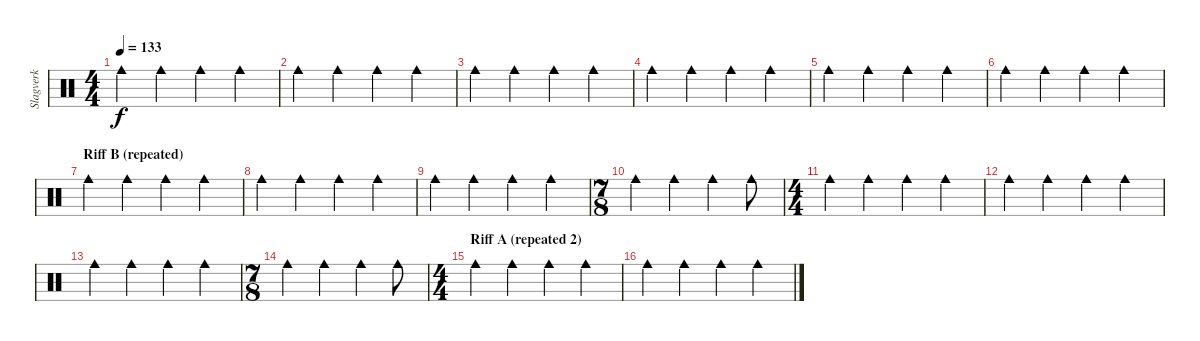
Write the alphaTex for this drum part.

\track ("Slagverk" "Slagverk") {instrument percussion}
\staff {score}
\articulation defaults
\ts (4 4)
\tempo 133
\clef neutral
\ks c "Cowbell medium (hit)".4{dy f} "Cowbell medium (hit)".4 "Cowbell medium (hit)".4 "Cowbell medium (hit)".4
|
"Cowbell medium (hit)".4 "Cowbell medium (hit)".4 "Cowbell medium (hit)".4 "Cowbell medium (hit)".4 |
"Cowbell medium (hit)".4 "Cowbell medium (hit)".4 "Cowbell medium (hit)".4 "Cowbell medium (hit)".4 |
"Cowbell medium (hit)".4 "Cowbell medium (hit)".4 "Cowbell medium (hit)".4 "Cowbell medium (hit)".4 |
"Cowbell medium (hit)".4 "Cowbell medium (hit)".4 "Cowbell medium (hit)".4 "Cowbell medium (hit)".4 |
"Cowbell medium (hit)".4 "Cowbell medium (hit)".4 "Cowbell medium (hit)".4 "Cowbell medium (hit)".4 |
\section ("" "Riff B (repeated)")
"Cowbell medium (hit)".4 "Cowbell medium (hit)".4 "Cowbell medium (hit)".4 "Cowbell medium (hit)".4 |
"Cowbell medium (hit)".4 "Cowbell medium (hit)".4 "Cowbell medium (hit)".4 "Cowbell medium (hit)".4 |
"Cowbell medium (hit)".4 "Cowbell medium (hit)".4 "Cowbell medium (hit)".4 "Cowbell medium (hit)".4 |
\ts (7 8)
"Cowbell medium (hit)".4 "Cowbell medium (hit)".4 "Cowbell medium (hit)".4 "Cowbell medium (hit)".8 |
\ts (4 4)
"Cowbell medium (hit)".4 "Cowbell medium (hit)".4 "Cowbell medium (hit)".4 "Cowbell medium (hit)".4 |
"Cowbell medium (hit)".4 "Cowbell medium (hit)".4 "Cowbell medium (hit)".4 "Cowbell medium (hit)".4 |
"Cowbell medium (hit)".4 "Cowbell medium (hit)".4 "Cowbell medium (hit)".4 "Cowbell medium (hit)".4 |
\ts (7 8)
"Cowbell medium (hit)".4 "Cowbell medium (hit)".4 "Cowbell medium (hit)".4 "Cowbell medium (hit)".8 |
\ts (4 4)
\section ("" "Riff A (repeated 2)")
"Cowbell medium (hit)".4 "Cowbell medium (hit)".4 "Cowbell medium (hit)".4 "Cowbell medium (hit)".4 |
"Cowbell medium (hit)".4 "Cowbell medium (hit)".4 "Cowbell medium (hit)".4 "Cowbell medium (hit)".4
